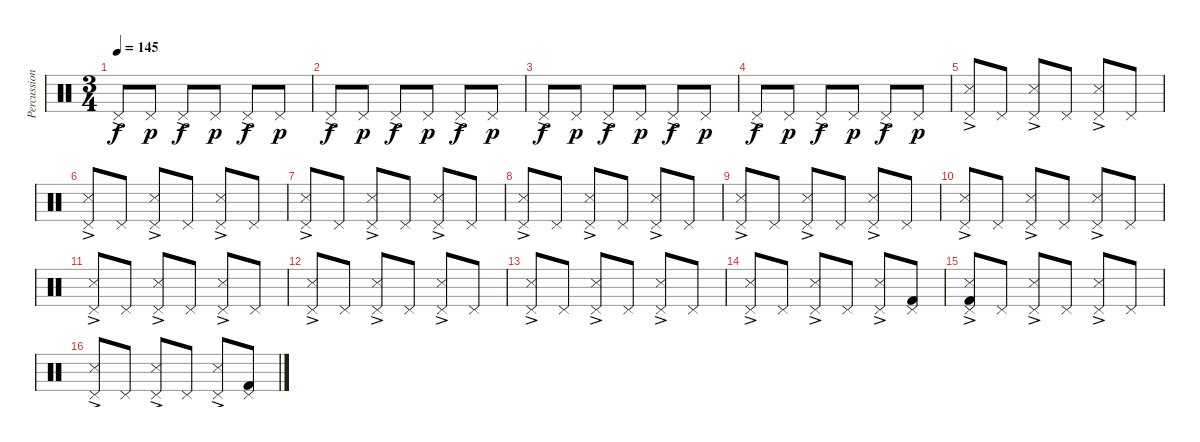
\track ("Percussion" "Percussion") {instrument percussion}
\staff {score}
\articulation defaults
\ts (3 4)
\tempo 145
\clef neutral
\ks c "Pedal Hi-Hat (hit)"{ac}.8{dy f} "Pedal Hi-Hat (hit)".8{dy p} "Pedal Hi-Hat (hit)"{ac}.8{dy f} "Pedal Hi-Hat (hit)".8{dy p} "Pedal Hi-Hat (hit)"{ac}.8{dy f} "Pedal Hi-Hat (hit)".8{dy p}
|
"Pedal Hi-Hat (hit)"{ac}.8{dy f} "Pedal Hi-Hat (hit)".8{dy p} "Pedal Hi-Hat (hit)"{ac}.8{dy f} "Pedal Hi-Hat (hit)".8{dy p} "Pedal Hi-Hat (hit)"{ac}.8{dy f} "Pedal Hi-Hat (hit)".8{dy p} |
"Pedal Hi-Hat (hit)"{ac}.8{dy f} "Pedal Hi-Hat (hit)".8{dy p} "Pedal Hi-Hat (hit)"{ac}.8{dy f} "Pedal Hi-Hat (hit)".8{dy p} "Pedal Hi-Hat (hit)"{ac}.8{dy f} "Pedal Hi-Hat (hit)".8{dy p} |
"Pedal Hi-Hat (hit)"{ac}.8{dy f} "Pedal Hi-Hat (hit)".8{dy p} "Pedal Hi-Hat (hit)"{ac}.8{dy f} "Pedal Hi-Hat (hit)".8{dy p} "Pedal Hi-Hat (hit)"{ac}.8{dy f} "Pedal Hi-Hat (hit)".8{dy p} |
("Pedal Hi-Hat (hit)"{ac} "Snare (side stick) 3").8 "Pedal Hi-Hat (hit)".8 ("Pedal Hi-Hat (hit)"{ac} "Snare (side stick) 3").8 "Pedal Hi-Hat (hit)".8 ("Pedal Hi-Hat (hit)"{ac} "Snare (side stick) 3").8 "Pedal Hi-Hat (hit)".8 |
("Pedal Hi-Hat (hit)"{ac} "Snare (side stick) 3").8 "Pedal Hi-Hat (hit)".8 ("Pedal Hi-Hat (hit)"{ac} "Snare (side stick) 3").8 "Pedal Hi-Hat (hit)".8 ("Pedal Hi-Hat (hit)"{ac} "Snare (side stick) 3").8 "Pedal Hi-Hat (hit)".8 |
("Pedal Hi-Hat (hit)"{ac} "Snare (side stick) 3").8 "Pedal Hi-Hat (hit)".8 ("Pedal Hi-Hat (hit)"{ac} "Snare (side stick) 3").8 "Pedal Hi-Hat (hit)".8 ("Pedal Hi-Hat (hit)"{ac} "Snare (side stick) 3").8 "Pedal Hi-Hat (hit)".8 |
("Pedal Hi-Hat (hit)"{ac} "Snare (side stick) 3").8 "Pedal Hi-Hat (hit)".8 ("Pedal Hi-Hat (hit)"{ac} "Snare (side stick) 3").8 "Pedal Hi-Hat (hit)".8 ("Pedal Hi-Hat (hit)"{ac} "Snare (side stick) 3").8 "Pedal Hi-Hat (hit)".8 |
("Pedal Hi-Hat (hit)"{ac} "Snare (side stick) 3").8 "Pedal Hi-Hat (hit)".8 ("Pedal Hi-Hat (hit)"{ac} "Snare (side stick) 3").8 "Pedal Hi-Hat (hit)".8 ("Pedal Hi-Hat (hit)"{ac} "Snare (side stick) 3").8 "Pedal Hi-Hat (hit)".8 |
("Pedal Hi-Hat (hit)"{ac} "Snare (side stick) 3").8 "Pedal Hi-Hat (hit)".8 ("Pedal Hi-Hat (hit)"{ac} "Snare (side stick) 3").8 "Pedal Hi-Hat (hit)".8 ("Pedal Hi-Hat (hit)"{ac} "Snare (side stick) 3").8 "Pedal Hi-Hat (hit)".8 |
("Pedal Hi-Hat (hit)"{ac} "Snare (side stick) 3").8 "Pedal Hi-Hat (hit)".8 ("Pedal Hi-Hat (hit)"{ac} "Snare (side stick) 3").8 "Pedal Hi-Hat (hit)".8 ("Pedal Hi-Hat (hit)"{ac} "Snare (side stick) 3").8 "Pedal Hi-Hat (hit)".8 |
("Pedal Hi-Hat (hit)"{ac} "Snare (side stick) 3").8 "Pedal Hi-Hat (hit)".8 ("Pedal Hi-Hat (hit)"{ac} "Snare (side stick) 3").8 "Pedal Hi-Hat (hit)".8 ("Pedal Hi-Hat (hit)"{ac} "Snare (side stick) 3").8 "Pedal Hi-Hat (hit)".8 |
("Pedal Hi-Hat (hit)"{ac} "Snare (side stick) 3").8 "Pedal Hi-Hat (hit)".8 ("Pedal Hi-Hat (hit)"{ac} "Snare (side stick) 3").8 "Pedal Hi-Hat (hit)".8 ("Pedal Hi-Hat (hit)"{ac} "Snare (side stick) 3").8 "Pedal Hi-Hat (hit)".8 |
("Pedal Hi-Hat (hit)"{ac} "Snare (side stick) 3").8 "Pedal Hi-Hat (hit)".8 ("Pedal Hi-Hat (hit)"{ac} "Snare (side stick) 3").8 "Pedal Hi-Hat (hit)".8 ("Pedal Hi-Hat (hit)"{ac} "Snare (side stick) 3").8 ("Pedal Hi-Hat (hit)" "Kick (hit) 2").8 |
("Pedal Hi-Hat (hit)"{ac} "Snare (side stick) 3" "Kick (hit) 2").8 "Pedal Hi-Hat (hit)".8 ("Pedal Hi-Hat (hit)"{ac} "Snare (side stick) 3").8 "Pedal Hi-Hat (hit)".8 ("Pedal Hi-Hat (hit)"{ac} "Snare (side stick) 3").8 "Pedal Hi-Hat (hit)".8 |
("Pedal Hi-Hat (hit)"{ac} "Snare (side stick) 3").8 "Pedal Hi-Hat (hit)".8 ("Pedal Hi-Hat (hit)"{ac} "Snare (side stick) 3").8 "Pedal Hi-Hat (hit)".8 ("Pedal Hi-Hat (hit)"{ac} "Snare (side stick) 3").8 ("Pedal Hi-Hat (hit)" "Kick (hit) 2").8
